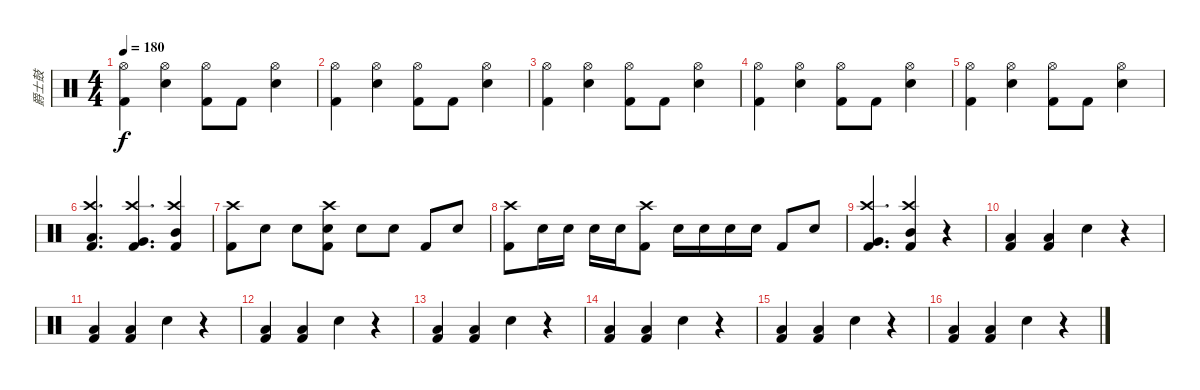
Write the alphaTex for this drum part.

\track ("爵士鼓" "爵士鼓") {instrument percussion}
\staff {score}
\articulation defaults
\ts (4 4)
\tempo 180
\clef neutral
\ks c
("Hi-Hat (open)" "Kick (hit) 2").4{dy f} ("Hi-Hat (open)" "Snare (hit) 2").4 ("Hi-Hat (open)" "Kick (hit) 2").8 "Kick (hit) 2".8 ("Hi-Hat (open)" "Snare (hit) 2").4 |
("Hi-Hat (open)" "Kick (hit) 2").4 ("Hi-Hat (open)" "Snare (hit) 2").4 ("Hi-Hat (open)" "Kick (hit) 2").8 "Kick (hit) 2".8 ("Hi-Hat (open)" "Snare (hit) 2").4 |
("Hi-Hat (open)" "Kick (hit) 2").4 ("Hi-Hat (open)" "Snare (hit) 2").4 ("Hi-Hat (open)" "Kick (hit) 2").8 "Kick (hit) 2".8 ("Hi-Hat (open)" "Snare (hit) 2").4 |
("Hi-Hat (open)" "Kick (hit) 2").4 ("Hi-Hat (open)" "Snare (hit) 2").4 ("Hi-Hat (open)" "Kick (hit) 2").8 "Kick (hit) 2".8 ("Hi-Hat (open)" "Snare (hit) 2").4 |
("Hi-Hat (open)" "Kick (hit) 2").4 ("Hi-Hat (open)" "Snare (hit) 2").4 ("Hi-Hat (open)" "Kick (hit) 2").8 "Kick (hit) 2".8 ("Hi-Hat (open)" "Snare (hit) 2").4 |
("Crash high (hit)" "Low Tom (hit)" "Kick (hit) 2").4{d} ("Crash high (hit)" "Very Low Tom (hit)" "Kick (hit) 2").4{d} ("Crash high (hit)" "Mid Tom (hit)" "Kick (hit) 2").4 |
("Crash high (hit)" "Kick (hit) 2").8 "Snare (hit) 2".8 "Snare (hit) 2".8 ("Crash high (hit)" "Snare (hit) 2" "Kick (hit) 2").8 "Snare (hit) 2".8 "Snare (hit) 2".8 "Kick (hit) 2".8 "Snare (hit) 2".8 |
("Crash high (hit)" "Kick (hit) 2").8 "Snare (hit) 2".16 "Snare (hit) 2".16 "Snare (hit) 2".16 "Snare (hit) 2".16 ("Crash high (hit)" "Kick (hit) 2").8 "Snare (hit) 2".16 "Snare (hit) 2".16 "Snare (hit) 2".16 "Snare (hit) 2".16 "Kick (hit) 2".8 "Snare (hit) 2".8 |
("Crash high (hit)" "Very Low Tom (hit)" "Kick (hit) 2").4{d} ("Crash high (hit)" "Mid Tom (hit)" "Kick (hit) 2").4 r.4 |
("Low Tom (hit)" "Kick (hit) 2").4 ("Low Tom (hit)" "Kick (hit) 2").4 "Snare (hit) 2".4 r.4 |
("Low Tom (hit)" "Kick (hit) 2").4 ("Low Tom (hit)" "Kick (hit) 2").4 "Snare (hit) 2".4 r.4 |
("Low Tom (hit)" "Kick (hit) 2").4 ("Low Tom (hit)" "Kick (hit) 2").4 "Snare (hit) 2".4 r.4 |
("Low Tom (hit)" "Kick (hit) 2").4 ("Low Tom (hit)" "Kick (hit) 2").4 "Snare (hit) 2".4 r.4 |
("Low Tom (hit)" "Kick (hit) 2").4 ("Low Tom (hit)" "Kick (hit) 2").4 "Snare (hit) 2".4 r.4 |
("Low Tom (hit)" "Kick (hit) 2").4 ("Low Tom (hit)" "Kick (hit) 2").4 "Snare (hit) 2".4 r.4 |
("Low Tom (hit)" "Kick (hit) 2").4 ("Low Tom (hit)" "Kick (hit) 2").4 "Snare (hit) 2".4 r.4
